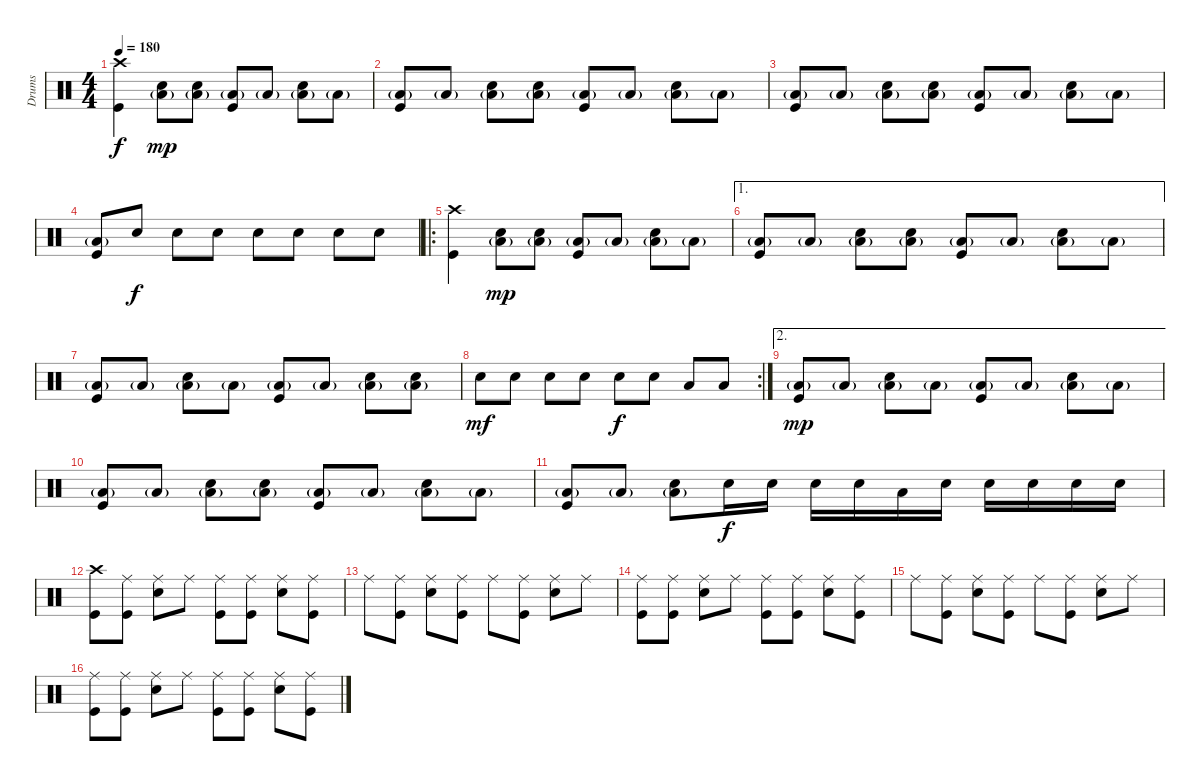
\track ("Drums" "Drums") {instrument percussion}
\staff {score}
\articulation defaults
\ts (4 4)
\tempo 180
\clef neutral
\ks c
("Crash high (hit)" "Kick (hit)").4{dy f} ("Low Tom (hit)"{g} "Electric Snare (hit)").8{dy mp} ("Low Tom (hit)"{g} "Electric Snare (hit)").8 ("Low Tom (hit)"{g} "Kick (hit)").8 "Low Tom (hit)"{g}.8 ("Low Tom (hit)"{g} "Electric Snare (hit)").8 "Low Tom (hit)"{g}.8 |
("Low Tom (hit)"{g} "Kick (hit)").8 "Low Tom (hit)"{g}.8 ("Low Tom (hit)"{g} "Electric Snare (hit)").8 ("Low Tom (hit)"{g} "Electric Snare (hit)").8 ("Low Tom (hit)"{g} "Kick (hit)").8 "Low Tom (hit)"{g}.8 ("Low Tom (hit)"{g} "Electric Snare (hit)").8 "Low Tom (hit)"{g}.8 |
("Low Tom (hit)"{g} "Kick (hit)").8 "Low Tom (hit)"{g}.8 ("Low Tom (hit)"{g} "Electric Snare (hit)").8 ("Low Tom (hit)"{g} "Electric Snare (hit)").8 ("Low Tom (hit)"{g} "Kick (hit)").8 "Low Tom (hit)"{g}.8 ("Low Tom (hit)"{g} "Electric Snare (hit)").8 "Low Tom (hit)"{g}.8 |
("Low Tom (hit)"{g} "Kick (hit)").8 "Electric Snare (hit)".8{dy f} "Electric Snare (hit)".8 "Electric Snare (hit)".8 "Electric Snare (hit)".8 "Electric Snare (hit)".8 "Electric Snare (hit)".8 "Electric Snare (hit)".8 |
\ro
("Crash high (hit)" "Kick (hit)").4 ("Low Tom (hit)"{g} "Electric Snare (hit)").8{dy mp} ("Low Tom (hit)"{g} "Electric Snare (hit)").8 ("Low Tom (hit)"{g} "Kick (hit)").8 "Low Tom (hit)"{g}.8 ("Low Tom (hit)"{g} "Electric Snare (hit)").8 "Low Tom (hit)"{g}.8 |
\ae 1
("Low Tom (hit)"{g} "Kick (hit)").8 "Low Tom (hit)"{g}.8 ("Low Tom (hit)"{g} "Electric Snare (hit)").8 ("Low Tom (hit)"{g} "Electric Snare (hit)").8 ("Low Tom (hit)"{g} "Kick (hit)").8 "Low Tom (hit)"{g}.8 ("Low Tom (hit)"{g} "Electric Snare (hit)").8 "Low Tom (hit)"{g}.8 |
("Low Tom (hit)"{g} "Kick (hit)").8 "Low Tom (hit)"{g}.8 ("Low Tom (hit)"{g} "Electric Snare (hit)").8 "Low Tom (hit)"{g}.8 ("Low Tom (hit)"{g} "Kick (hit)").8 "Low Tom (hit)"{g}.8 ("Low Tom (hit)"{g} "Electric Snare (hit)").8 ("Low Tom (hit)"{g} "Electric Snare (hit)").8 |
\rc 2 "Electric Snare (hit)".8{dy mf} "Electric Snare (hit)".8 "Electric Snare (hit)".8 "Electric Snare (hit)".8 "Electric Snare (hit)".8{dy f} "Electric Snare (hit)".8 "Low Tom (hit)".8 "Low Tom (hit)".8
|
\ae 2
("Low Tom (hit)"{g} "Kick (hit)").8{dy mp} "Low Tom (hit)"{g}.8 ("Low Tom (hit)"{g} "Electric Snare (hit)").8 "Low Tom (hit)"{g}.8 ("Low Tom (hit)"{g} "Kick (hit)").8 "Low Tom (hit)"{g}.8 ("Low Tom (hit)"{g} "Electric Snare (hit)").8 "Low Tom (hit)"{g}.8 |
("Low Tom (hit)"{g} "Kick (hit)").8 "Low Tom (hit)"{g}.8 ("Low Tom (hit)"{g} "Electric Snare (hit)").8 ("Low Tom (hit)"{g} "Electric Snare (hit)").8 ("Low Tom (hit)"{g} "Kick (hit)").8 "Low Tom (hit)"{g}.8 ("Low Tom (hit)"{g} "Electric Snare (hit)").8 "Low Tom (hit)"{g}.8 |
("Low Tom (hit)"{g} "Kick (hit)").8 "Low Tom (hit)"{g}.8 ("Low Tom (hit)"{g} "Electric Snare (hit)").8 "Electric Snare (hit)".16{dy f} "Electric Snare (hit)".16 "Electric Snare (hit)".16 "Electric Snare (hit)".16 "Low Tom (hit)".16 "Electric Snare (hit)".16 "Electric Snare (hit)".16 "Electric Snare (hit)".16 "Electric Snare (hit)".16 "Electric Snare (hit)".16 |
("Crash high (hit)" "Kick (hit)").8 ("Ride (middle)" "Kick (hit)").8 ("Ride (middle)" "Electric Snare (hit)").8 "Ride (middle)".8 ("Ride (middle)" "Kick (hit)").8 ("Ride (middle)" "Kick (hit)").8 ("Ride (middle)" "Electric Snare (hit)").8 ("Ride (middle)" "Kick (hit)").8 |
"Ride (middle)".8 ("Ride (middle)" "Kick (hit)").8 ("Ride (middle)" "Electric Snare (hit)").8 ("Ride (middle)" "Kick (hit)").8 "Ride (middle)".8 ("Ride (middle)" "Kick (hit)").8 ("Ride (middle)" "Electric Snare (hit)").8 "Ride (middle)".8 |
("Ride (middle)" "Kick (hit)").8 ("Ride (middle)" "Kick (hit)").8 ("Ride (middle)" "Electric Snare (hit)").8 "Ride (middle)".8 ("Ride (middle)" "Kick (hit)").8 ("Ride (middle)" "Kick (hit)").8 ("Ride (middle)" "Electric Snare (hit)").8 ("Ride (middle)" "Kick (hit)").8 |
"Ride (middle)".8 ("Ride (middle)" "Kick (hit)").8 ("Ride (middle)" "Electric Snare (hit)").8 ("Ride (middle)" "Kick (hit)").8 "Ride (middle)".8 ("Ride (middle)" "Kick (hit)").8 ("Ride (middle)" "Electric Snare (hit)").8 "Ride (middle)".8 |
("Ride (middle)" "Kick (hit)").8 ("Ride (middle)" "Kick (hit)").8 ("Ride (middle)" "Electric Snare (hit)").8 "Ride (middle)".8 ("Ride (middle)" "Kick (hit)").8 ("Ride (middle)" "Kick (hit)").8 ("Ride (middle)" "Electric Snare (hit)").8 ("Ride (middle)" "Kick (hit)").8
